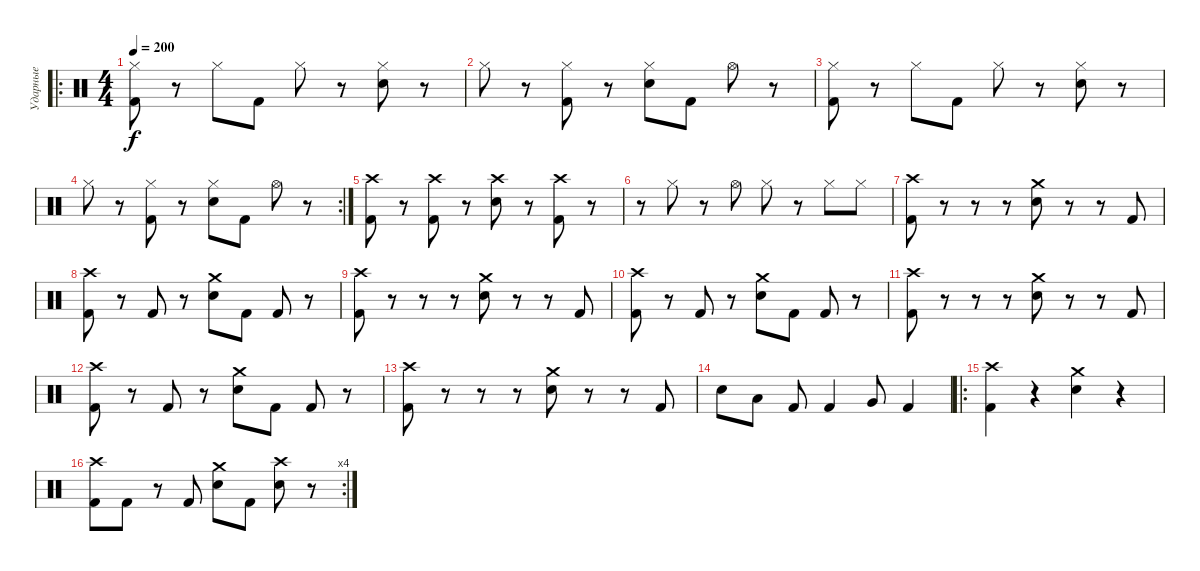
\track ("Ударные" "Ударные") {instrument percussion}
\staff {score}
\articulation defaults
\ro
\ts (4 4)
\tempo 200
\clef neutral
\ks c
("Hi-Hat (closed)" "Kick (hit) 2").8{dy f} r.8 "Hi-Hat (closed)".8 "Kick (hit) 2".8 "Hi-Hat (closed)".8 r.8 ("Hi-Hat (closed)" "Electric Snare (hit)").8 r.8 |
"Hi-Hat (closed)".8 r.8 ("Hi-Hat (closed)" "Kick (hit) 2").8 r.8 ("Hi-Hat (closed)" "Electric Snare (hit)").8 "Kick (hit) 2".8 "Hi-Hat (open)".8 r.8 |
("Hi-Hat (closed)" "Kick (hit) 2").8 r.8 "Hi-Hat (closed)".8 "Kick (hit) 2".8 "Hi-Hat (closed)".8 r.8 ("Hi-Hat (closed)" "Electric Snare (hit)").8 r.8 |
\rc 2 "Hi-Hat (closed)".8
r.8 ("Hi-Hat (closed)" "Kick (hit) 2").8 r.8 ("Hi-Hat (closed)" "Electric Snare (hit)").8 "Kick (hit) 2".8 "Hi-Hat (open)".8 r.8 |
("Crash high (hit)" "Kick (hit) 2").8 r.8 ("Crash high (hit)" "Kick (hit) 2").8 r.8 ("Crash high (hit)" "Electric Snare (hit)").8 r.8 ("Crash high (hit)" "Kick (hit) 2").8 r.8 |
r.8 "Hi-Hat (closed)".8 r.8 "Hi-Hat (open)".8 "Hi-Hat (closed)".8 r.8 "Hi-Hat (closed)".8 "Hi-Hat (closed)".8 |
("Crash high (hit)" "Kick (hit) 2").8 r.8 r.8 r.8 ("Crash medium (hit)" "Electric Snare (hit)").8 r.8 r.8 "Kick (hit) 2".8 |
("Crash high (hit)" "Kick (hit) 2").8 r.8 "Kick (hit) 2".8 r.8 ("Crash medium (hit)" "Electric Snare (hit)").8 "Kick (hit) 2".8 "Kick (hit) 2".8 r.8 |
("Crash high (hit)" "Kick (hit) 2").8 r.8 r.8 r.8 ("Crash medium (hit)" "Electric Snare (hit)").8 r.8 r.8 "Kick (hit) 2".8 |
("Crash high (hit)" "Kick (hit) 2").8 r.8 "Kick (hit) 2".8 r.8 ("Crash medium (hit)" "Electric Snare (hit)").8 "Kick (hit) 2".8 "Kick (hit) 2".8 r.8 |
("Crash high (hit)" "Kick (hit) 2").8 r.8 r.8 r.8 ("Crash medium (hit)" "Electric Snare (hit)").8 r.8 r.8 "Kick (hit) 2".8 |
("Crash high (hit)" "Kick (hit) 2").8 r.8 "Kick (hit) 2".8 r.8 ("Crash medium (hit)" "Electric Snare (hit)").8 "Kick (hit) 2".8 "Kick (hit) 2".8 r.8 |
("Crash high (hit)" "Kick (hit) 2").8 r.8 r.8 r.8 ("Crash medium (hit)" "Electric Snare (hit)").8 r.8 r.8 "Kick (hit) 2".8 |
"Electric Snare (hit)".8 "Low Tom (hit)".8 "Kick (hit) 2".8 "Kick (hit) 2".4 "Very Low Tom (hit)".8 "Kick (hit) 2".4 |
\ro
("Crash high (hit)" "Kick (hit) 2").4 r.4 ("Crash medium (hit)" "Electric Snare (hit)").4 r.4 |
\rc 4
("Crash high (hit)" "Kick (hit) 2").8 "Kick (hit) 2".8 r.8 "Kick (hit) 2".8 ("Crash medium (hit)" "Electric Snare (hit)").8 "Kick (hit) 2".8 ("Crash high (hit)" "Electric Snare (hit)").8 r.8
